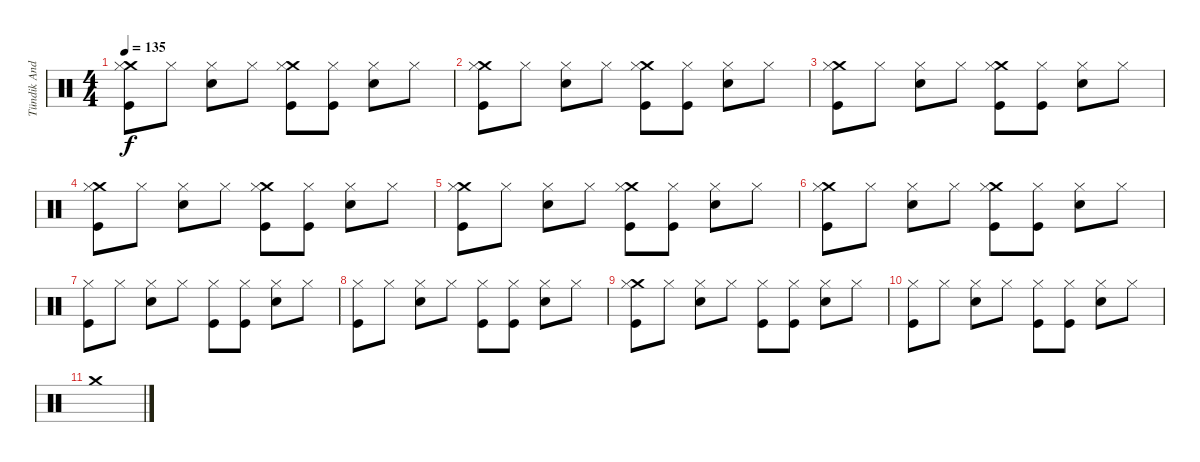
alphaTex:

\track ("Tündik András - Dob" "Tündik And") {instrument percussion}
\staff {score}
\articulation defaults
\ts (4 4)
\tempo 135
\clef neutral
\ks c
("Crash medium (hit)" "Hi-Hat (closed)" "Kick (hit)").8{dy f} "Hi-Hat (closed)".8 ("Snare (hit) 2" "Hi-Hat (closed)").8 "Hi-Hat (closed)".8 ("Crash medium (hit)" "Hi-Hat (closed)" "Kick (hit)").8 ("Hi-Hat (closed)" "Kick (hit)").8 ("Snare (hit) 2" "Hi-Hat (closed)").8 "Hi-Hat (closed)".8 |
("Crash medium (hit)" "Hi-Hat (closed)" "Kick (hit)").8 "Hi-Hat (closed)".8 ("Snare (hit) 2" "Hi-Hat (closed)").8 "Hi-Hat (closed)".8 ("Crash medium (hit)" "Hi-Hat (closed)" "Kick (hit)").8 ("Hi-Hat (closed)" "Kick (hit)").8 ("Snare (hit) 2" "Hi-Hat (closed)").8 "Hi-Hat (closed)".8 |
("Crash medium (hit)" "Hi-Hat (closed)" "Kick (hit)").8 "Hi-Hat (closed)".8 ("Snare (hit) 2" "Hi-Hat (closed)").8 "Hi-Hat (closed)".8 ("Crash medium (hit)" "Hi-Hat (closed)" "Kick (hit)").8 ("Hi-Hat (closed)" "Kick (hit)").8 ("Snare (hit) 2" "Hi-Hat (closed)").8 "Hi-Hat (closed)".8 |
("Crash medium (hit)" "Hi-Hat (closed)" "Kick (hit)").8 "Hi-Hat (closed)".8 ("Snare (hit) 2" "Hi-Hat (closed)").8 "Hi-Hat (closed)".8 ("Crash medium (hit)" "Hi-Hat (closed)" "Kick (hit)").8 ("Hi-Hat (closed)" "Kick (hit)").8 ("Snare (hit) 2" "Hi-Hat (closed)").8 "Hi-Hat (closed)".8 |
("Crash medium (hit)" "Hi-Hat (closed)" "Kick (hit)").8 "Hi-Hat (closed)".8 ("Snare (hit) 2" "Hi-Hat (closed)").8 "Hi-Hat (closed)".8 ("Crash medium (hit)" "Hi-Hat (closed)" "Kick (hit)").8 ("Hi-Hat (closed)" "Kick (hit)").8 ("Snare (hit) 2" "Hi-Hat (closed)").8 "Hi-Hat (closed)".8 |
("Crash medium (hit)" "Hi-Hat (closed)" "Kick (hit)").8 "Hi-Hat (closed)".8 ("Snare (hit) 2" "Hi-Hat (closed)").8 "Hi-Hat (closed)".8 ("Crash medium (hit)" "Hi-Hat (closed)" "Kick (hit)").8 ("Hi-Hat (closed)" "Kick (hit)").8 ("Snare (hit) 2" "Hi-Hat (closed)").8 "Hi-Hat (closed)".8 |
("Hi-Hat (closed)" "Kick (hit)").8 "Hi-Hat (closed)".8 ("Snare (hit) 2" "Hi-Hat (closed)").8 "Hi-Hat (closed)".8 ("Hi-Hat (closed)" "Kick (hit)").8 ("Hi-Hat (closed)" "Kick (hit)").8 ("Snare (hit) 2" "Hi-Hat (closed)").8 "Hi-Hat (closed)".8 |
("Hi-Hat (closed)" "Kick (hit)").8 "Hi-Hat (closed)".8 ("Snare (hit) 2" "Hi-Hat (closed)").8 "Hi-Hat (closed)".8 ("Hi-Hat (closed)" "Kick (hit)").8 ("Hi-Hat (closed)" "Kick (hit)").8 ("Snare (hit) 2" "Hi-Hat (closed)").8 "Hi-Hat (closed)".8 |
("Crash medium (hit)" "Hi-Hat (closed)" "Kick (hit)").8 "Hi-Hat (closed)".8 ("Snare (hit) 2" "Hi-Hat (closed)").8 "Hi-Hat (closed)".8 ("Hi-Hat (closed)" "Kick (hit)").8 ("Hi-Hat (closed)" "Kick (hit)").8 ("Snare (hit) 2" "Hi-Hat (closed)").8 "Hi-Hat (closed)".8 |
("Hi-Hat (closed)" "Kick (hit)").8 "Hi-Hat (closed)".8 ("Snare (hit) 2" "Hi-Hat (closed)").8 "Hi-Hat (closed)".8 ("Hi-Hat (closed)" "Kick (hit)").8 ("Hi-Hat (closed)" "Kick (hit)").8 ("Snare (hit) 2" "Hi-Hat (closed)").8 "Hi-Hat (closed)".8 |
"Crash medium (hit)".1
